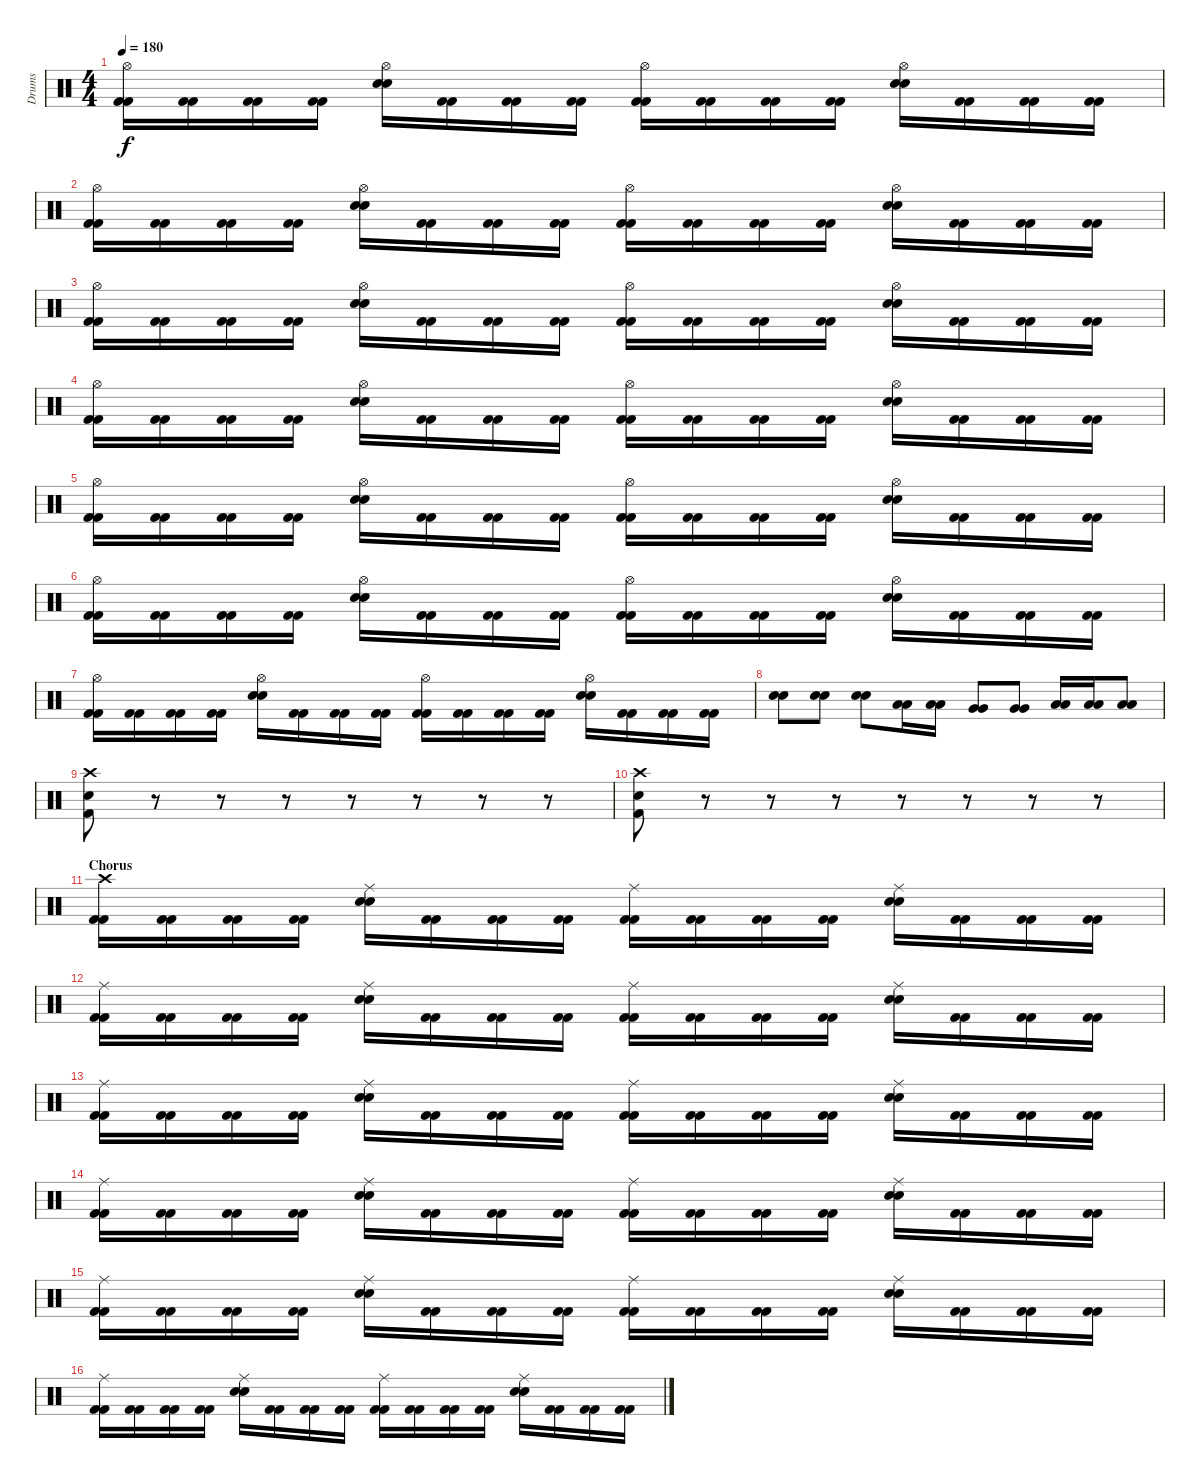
\track ("Drums" "Drums") {instrument percussion}
\staff {score}
\articulation defaults
\ts (4 4)
\tempo 180
\clef neutral
\ks c
("Hi-Hat (open)" "Kick (hit) 2" "Kick (hit) 2").16{dy f} ("Kick (hit) 2" "Kick (hit) 2").16 ("Kick (hit) 2" "Kick (hit) 2").16 ("Kick (hit) 2" "Kick (hit) 2").16 ("Hi-Hat (open)" "Snare (hit) 2" "Snare (hit) 2").16 ("Kick (hit) 2" "Kick (hit) 2").16 ("Kick (hit) 2" "Kick (hit) 2").16 ("Kick (hit) 2" "Kick (hit) 2").16 ("Hi-Hat (open)" "Kick (hit) 2" "Kick (hit) 2").16 ("Kick (hit) 2" "Kick (hit) 2").16 ("Kick (hit) 2" "Kick (hit) 2").16 ("Kick (hit) 2" "Kick (hit) 2").16 ("Hi-Hat (open)" "Snare (hit) 2" "Snare (hit) 2").16 ("Kick (hit) 2" "Kick (hit) 2").16 ("Kick (hit) 2" "Kick (hit) 2").16 ("Kick (hit) 2" "Kick (hit) 2").16 |
("Hi-Hat (open)" "Kick (hit) 2" "Kick (hit) 2").16 ("Kick (hit) 2" "Kick (hit) 2").16 ("Kick (hit) 2" "Kick (hit) 2").16 ("Kick (hit) 2" "Kick (hit) 2").16 ("Hi-Hat (open)" "Snare (hit) 2" "Snare (hit) 2").16 ("Kick (hit) 2" "Kick (hit) 2").16 ("Kick (hit) 2" "Kick (hit) 2").16 ("Kick (hit) 2" "Kick (hit) 2").16 ("Hi-Hat (open)" "Kick (hit) 2" "Kick (hit) 2").16 ("Kick (hit) 2" "Kick (hit) 2").16 ("Kick (hit) 2" "Kick (hit) 2").16 ("Kick (hit) 2" "Kick (hit) 2").16 ("Hi-Hat (open)" "Snare (hit) 2" "Snare (hit) 2").16 ("Kick (hit) 2" "Kick (hit) 2").16 ("Kick (hit) 2" "Kick (hit) 2").16 ("Kick (hit) 2" "Kick (hit) 2").16 |
("Hi-Hat (open)" "Kick (hit) 2" "Kick (hit) 2").16 ("Kick (hit) 2" "Kick (hit) 2").16 ("Kick (hit) 2" "Kick (hit) 2").16 ("Kick (hit) 2" "Kick (hit) 2").16 ("Hi-Hat (open)" "Snare (hit) 2" "Snare (hit) 2").16 ("Kick (hit) 2" "Kick (hit) 2").16 ("Kick (hit) 2" "Kick (hit) 2").16 ("Kick (hit) 2" "Kick (hit) 2").16 ("Hi-Hat (open)" "Kick (hit) 2" "Kick (hit) 2").16 ("Kick (hit) 2" "Kick (hit) 2").16 ("Kick (hit) 2" "Kick (hit) 2").16 ("Kick (hit) 2" "Kick (hit) 2").16 ("Hi-Hat (open)" "Snare (hit) 2" "Snare (hit) 2").16 ("Kick (hit) 2" "Kick (hit) 2").16 ("Kick (hit) 2" "Kick (hit) 2").16 ("Kick (hit) 2" "Kick (hit) 2").16 |
("Hi-Hat (open)" "Kick (hit) 2" "Kick (hit) 2").16 ("Kick (hit) 2" "Kick (hit) 2").16 ("Kick (hit) 2" "Kick (hit) 2").16 ("Kick (hit) 2" "Kick (hit) 2").16 ("Hi-Hat (open)" "Snare (hit) 2" "Snare (hit) 2").16 ("Kick (hit) 2" "Kick (hit) 2").16 ("Kick (hit) 2" "Kick (hit) 2").16 ("Kick (hit) 2" "Kick (hit) 2").16 ("Hi-Hat (open)" "Kick (hit) 2" "Kick (hit) 2").16 ("Kick (hit) 2" "Kick (hit) 2").16 ("Kick (hit) 2" "Kick (hit) 2").16 ("Kick (hit) 2" "Kick (hit) 2").16 ("Hi-Hat (open)" "Snare (hit) 2" "Snare (hit) 2").16 ("Kick (hit) 2" "Kick (hit) 2").16 ("Kick (hit) 2" "Kick (hit) 2").16 ("Kick (hit) 2" "Kick (hit) 2").16 |
("Hi-Hat (open)" "Kick (hit) 2" "Kick (hit) 2").16 ("Kick (hit) 2" "Kick (hit) 2").16 ("Kick (hit) 2" "Kick (hit) 2").16 ("Kick (hit) 2" "Kick (hit) 2").16 ("Hi-Hat (open)" "Snare (hit) 2" "Snare (hit) 2").16 ("Kick (hit) 2" "Kick (hit) 2").16 ("Kick (hit) 2" "Kick (hit) 2").16 ("Kick (hit) 2" "Kick (hit) 2").16 ("Hi-Hat (open)" "Kick (hit) 2" "Kick (hit) 2").16 ("Kick (hit) 2" "Kick (hit) 2").16 ("Kick (hit) 2" "Kick (hit) 2").16 ("Kick (hit) 2" "Kick (hit) 2").16 ("Hi-Hat (open)" "Snare (hit) 2" "Snare (hit) 2").16 ("Kick (hit) 2" "Kick (hit) 2").16 ("Kick (hit) 2" "Kick (hit) 2").16 ("Kick (hit) 2" "Kick (hit) 2").16 |
("Hi-Hat (open)" "Kick (hit) 2" "Kick (hit) 2").16 ("Kick (hit) 2" "Kick (hit) 2").16 ("Kick (hit) 2" "Kick (hit) 2").16 ("Kick (hit) 2" "Kick (hit) 2").16 ("Hi-Hat (open)" "Snare (hit) 2" "Snare (hit) 2").16 ("Kick (hit) 2" "Kick (hit) 2").16 ("Kick (hit) 2" "Kick (hit) 2").16 ("Kick (hit) 2" "Kick (hit) 2").16 ("Hi-Hat (open)" "Kick (hit) 2" "Kick (hit) 2").16 ("Kick (hit) 2" "Kick (hit) 2").16 ("Kick (hit) 2" "Kick (hit) 2").16 ("Kick (hit) 2" "Kick (hit) 2").16 ("Hi-Hat (open)" "Snare (hit) 2" "Snare (hit) 2").16 ("Kick (hit) 2" "Kick (hit) 2").16 ("Kick (hit) 2" "Kick (hit) 2").16 ("Kick (hit) 2" "Kick (hit) 2").16 |
("Hi-Hat (open)" "Kick (hit) 2" "Kick (hit) 2").16 ("Kick (hit) 2" "Kick (hit) 2").16 ("Kick (hit) 2" "Kick (hit) 2").16 ("Kick (hit) 2" "Kick (hit) 2").16 ("Hi-Hat (open)" "Snare (hit) 2" "Snare (hit) 2").16 ("Kick (hit) 2" "Kick (hit) 2").16 ("Kick (hit) 2" "Kick (hit) 2").16 ("Kick (hit) 2" "Kick (hit) 2").16 ("Hi-Hat (open)" "Kick (hit) 2" "Kick (hit) 2").16 ("Kick (hit) 2" "Kick (hit) 2").16 ("Kick (hit) 2" "Kick (hit) 2").16 ("Kick (hit) 2" "Kick (hit) 2").16 ("Hi-Hat (open)" "Snare (hit) 2" "Snare (hit) 2").16 ("Kick (hit) 2" "Kick (hit) 2").16 ("Kick (hit) 2" "Kick (hit) 2").16 ("Kick (hit) 2" "Kick (hit) 2").16 |
("Snare (hit) 2" "Snare (hit) 2").8 ("Snare (hit) 2" "Snare (hit) 2").8 ("Snare (hit) 2" "Snare (hit) 2").8 ("Low Tom (hit)" "Low Tom (hit)").16 ("Low Tom (hit)" "Low Tom (hit)").16 ("Very Low Tom (hit)" "Very Low Tom (hit)").8 ("Very Low Tom (hit)" "Very Low Tom (hit)").8 ("Low Floor Tom (hit)" "Low Floor Tom (hit)").16 ("Low Floor Tom (hit)" "Low Floor Tom (hit)").16 ("Low Floor Tom (hit)" "Low Floor Tom (hit)").8 |
("Crash high (hit)" "Snare (hit) 2" "Kick (hit) 2").8 r.8 r.8 r.8 r.8 r.8 r.8 r.8 |
("Crash high (hit)" "Snare (hit) 2" "Kick (hit) 2").8 r.8 r.8 r.8 r.8 r.8 r.8 r.8 |
\section ("" "Chorus")
("Crash high (hit)" "Kick (hit) 2" "Kick (hit) 2").16 ("Kick (hit) 2" "Kick (hit) 2").16 ("Kick (hit) 2" "Kick (hit) 2").16 ("Kick (hit) 2" "Kick (hit) 2").16 ("Ride (middle)" "Snare (hit) 2" "Snare (hit) 2").16 ("Kick (hit) 2" "Kick (hit) 2").16 ("Kick (hit) 2" "Kick (hit) 2").16 ("Kick (hit) 2" "Kick (hit) 2").16 ("Ride (middle)" "Kick (hit) 2" "Kick (hit) 2").16 ("Kick (hit) 2" "Kick (hit) 2").16 ("Kick (hit) 2" "Kick (hit) 2").16 ("Kick (hit) 2" "Kick (hit) 2").16 ("Ride (middle)" "Snare (hit) 2" "Snare (hit) 2").16 ("Kick (hit) 2" "Kick (hit) 2").16 ("Kick (hit) 2" "Kick (hit) 2").16 ("Kick (hit) 2" "Kick (hit) 2").16 |
("Ride (middle)" "Kick (hit) 2" "Kick (hit) 2").16 ("Kick (hit) 2" "Kick (hit) 2").16 ("Kick (hit) 2" "Kick (hit) 2").16 ("Kick (hit) 2" "Kick (hit) 2").16 ("Ride (middle)" "Snare (hit) 2" "Snare (hit) 2").16 ("Kick (hit) 2" "Kick (hit) 2").16 ("Kick (hit) 2" "Kick (hit) 2").16 ("Kick (hit) 2" "Kick (hit) 2").16 ("Ride (middle)" "Kick (hit) 2" "Kick (hit) 2").16 ("Kick (hit) 2" "Kick (hit) 2").16 ("Kick (hit) 2" "Kick (hit) 2").16 ("Kick (hit) 2" "Kick (hit) 2").16 ("Ride (middle)" "Snare (hit) 2" "Snare (hit) 2").16 ("Kick (hit) 2" "Kick (hit) 2").16 ("Kick (hit) 2" "Kick (hit) 2").16 ("Kick (hit) 2" "Kick (hit) 2").16 |
("Ride (middle)" "Kick (hit) 2" "Kick (hit) 2").16 ("Kick (hit) 2" "Kick (hit) 2").16 ("Kick (hit) 2" "Kick (hit) 2").16 ("Kick (hit) 2" "Kick (hit) 2").16 ("Ride (middle)" "Snare (hit) 2" "Snare (hit) 2").16 ("Kick (hit) 2" "Kick (hit) 2").16 ("Kick (hit) 2" "Kick (hit) 2").16 ("Kick (hit) 2" "Kick (hit) 2").16 ("Ride (middle)" "Kick (hit) 2" "Kick (hit) 2").16 ("Kick (hit) 2" "Kick (hit) 2").16 ("Kick (hit) 2" "Kick (hit) 2").16 ("Kick (hit) 2" "Kick (hit) 2").16 ("Ride (middle)" "Snare (hit) 2" "Snare (hit) 2").16 ("Kick (hit) 2" "Kick (hit) 2").16 ("Kick (hit) 2" "Kick (hit) 2").16 ("Kick (hit) 2" "Kick (hit) 2").16 |
("Ride (middle)" "Kick (hit) 2" "Kick (hit) 2").16 ("Kick (hit) 2" "Kick (hit) 2").16 ("Kick (hit) 2" "Kick (hit) 2").16 ("Kick (hit) 2" "Kick (hit) 2").16 ("Ride (middle)" "Snare (hit) 2" "Snare (hit) 2").16 ("Kick (hit) 2" "Kick (hit) 2").16 ("Kick (hit) 2" "Kick (hit) 2").16 ("Kick (hit) 2" "Kick (hit) 2").16 ("Ride (middle)" "Kick (hit) 2" "Kick (hit) 2").16 ("Kick (hit) 2" "Kick (hit) 2").16 ("Kick (hit) 2" "Kick (hit) 2").16 ("Kick (hit) 2" "Kick (hit) 2").16 ("Ride (middle)" "Snare (hit) 2" "Snare (hit) 2").16 ("Kick (hit) 2" "Kick (hit) 2").16 ("Kick (hit) 2" "Kick (hit) 2").16 ("Kick (hit) 2" "Kick (hit) 2").16 |
("Ride (middle)" "Kick (hit) 2" "Kick (hit) 2").16 ("Kick (hit) 2" "Kick (hit) 2").16 ("Kick (hit) 2" "Kick (hit) 2").16 ("Kick (hit) 2" "Kick (hit) 2").16 ("Ride (middle)" "Snare (hit) 2" "Snare (hit) 2").16 ("Kick (hit) 2" "Kick (hit) 2").16 ("Kick (hit) 2" "Kick (hit) 2").16 ("Kick (hit) 2" "Kick (hit) 2").16 ("Ride (middle)" "Kick (hit) 2" "Kick (hit) 2").16 ("Kick (hit) 2" "Kick (hit) 2").16 ("Kick (hit) 2" "Kick (hit) 2").16 ("Kick (hit) 2" "Kick (hit) 2").16 ("Ride (middle)" "Snare (hit) 2" "Snare (hit) 2").16 ("Kick (hit) 2" "Kick (hit) 2").16 ("Kick (hit) 2" "Kick (hit) 2").16 ("Kick (hit) 2" "Kick (hit) 2").16 |
("Ride (middle)" "Kick (hit) 2" "Kick (hit) 2").16 ("Kick (hit) 2" "Kick (hit) 2").16 ("Kick (hit) 2" "Kick (hit) 2").16 ("Kick (hit) 2" "Kick (hit) 2").16 ("Ride (middle)" "Snare (hit) 2" "Snare (hit) 2").16 ("Kick (hit) 2" "Kick (hit) 2").16 ("Kick (hit) 2" "Kick (hit) 2").16 ("Kick (hit) 2" "Kick (hit) 2").16 ("Ride (middle)" "Kick (hit) 2" "Kick (hit) 2").16 ("Kick (hit) 2" "Kick (hit) 2").16 ("Kick (hit) 2" "Kick (hit) 2").16 ("Kick (hit) 2" "Kick (hit) 2").16 ("Ride (middle)" "Snare (hit) 2" "Snare (hit) 2").16 ("Kick (hit) 2" "Kick (hit) 2").16 ("Kick (hit) 2" "Kick (hit) 2").16 ("Kick (hit) 2" "Kick (hit) 2").16
